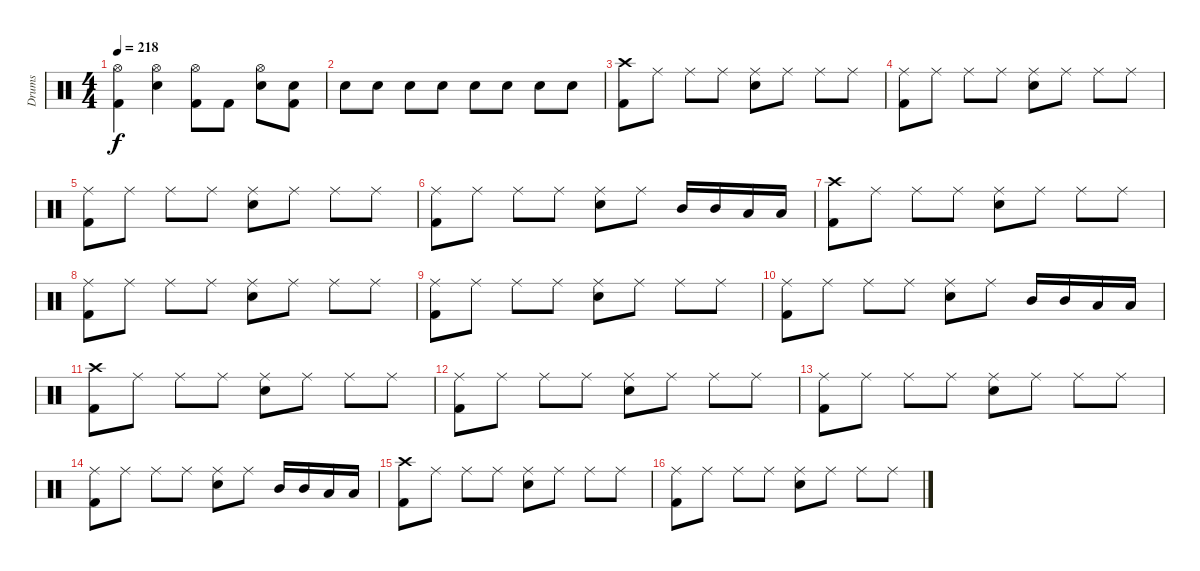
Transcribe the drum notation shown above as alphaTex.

\track ("Drums" "Drums") {instrument percussion}
\staff {score}
\articulation defaults
\ts (4 4)
\tempo 218
\clef neutral
\ks c
("Hi-Hat (open)" "Kick (hit) 2").4{dy f} ("Hi-Hat (open)" "Snare (hit) 2").4 ("Hi-Hat (open)" "Kick (hit) 2").8 "Kick (hit) 2".8 ("Hi-Hat (open)" "Snare (hit) 2").8 ("Snare (hit) 2" "Kick (hit) 2").8 |
"Snare (hit) 2".8 "Snare (hit) 2".8 "Snare (hit) 2".8 "Snare (hit) 2".8 "Snare (hit) 2".8 "Snare (hit) 2".8 "Snare (hit) 2".8 "Snare (hit) 2".8 |
("Crash high (hit)" "Kick (hit) 2").8 "Ride (middle)".8 "Ride (middle)".8 "Ride (middle)".8 ("Ride (middle)" "Snare (hit) 2").8 "Ride (middle)".8 "Ride (middle)".8 "Ride (middle)".8 |
("Ride (middle)" "Kick (hit) 2").8 "Ride (middle)".8 "Ride (middle)".8 "Ride (middle)".8 ("Ride (middle)" "Snare (hit) 2").8 "Ride (middle)".8 "Ride (middle)".8 "Ride (middle)".8 |
("Ride (middle)" "Kick (hit) 2").8 "Ride (middle)".8 "Ride (middle)".8 "Ride (middle)".8 ("Ride (middle)" "Snare (hit) 2").8 "Ride (middle)".8 "Ride (middle)".8 "Ride (middle)".8 |
("Ride (middle)" "Kick (hit) 2").8 "Ride (middle)".8 "Ride (middle)".8 "Ride (middle)".8 ("Ride (middle)" "Snare (hit) 2").8 "Ride (middle)".8 "Mid Tom (hit)".16 "Mid Tom (hit)".16 "Low Tom (hit)".16 "Low Tom (hit)".16 |
("Crash high (hit)" "Kick (hit) 2").8 "Ride (middle)".8 "Ride (middle)".8 "Ride (middle)".8 ("Ride (middle)" "Snare (hit) 2").8 "Ride (middle)".8 "Ride (middle)".8 "Ride (middle)".8 |
("Ride (middle)" "Kick (hit) 2").8 "Ride (middle)".8 "Ride (middle)".8 "Ride (middle)".8 ("Ride (middle)" "Snare (hit) 2").8 "Ride (middle)".8 "Ride (middle)".8 "Ride (middle)".8 |
("Ride (middle)" "Kick (hit) 2").8 "Ride (middle)".8 "Ride (middle)".8 "Ride (middle)".8 ("Ride (middle)" "Snare (hit) 2").8 "Ride (middle)".8 "Ride (middle)".8 "Ride (middle)".8 |
("Ride (middle)" "Kick (hit) 2").8 "Ride (middle)".8 "Ride (middle)".8 "Ride (middle)".8 ("Ride (middle)" "Snare (hit) 2").8 "Ride (middle)".8 "Mid Tom (hit)".16 "Mid Tom (hit)".16 "Low Tom (hit)".16 "Low Tom (hit)".16 |
("Crash high (hit)" "Kick (hit) 2").8 "Ride (middle)".8 "Ride (middle)".8 "Ride (middle)".8 ("Ride (middle)" "Snare (hit) 2").8 "Ride (middle)".8 "Ride (middle)".8 "Ride (middle)".8 |
("Ride (middle)" "Kick (hit) 2").8 "Ride (middle)".8 "Ride (middle)".8 "Ride (middle)".8 ("Ride (middle)" "Snare (hit) 2").8 "Ride (middle)".8 "Ride (middle)".8 "Ride (middle)".8 |
("Ride (middle)" "Kick (hit) 2").8 "Ride (middle)".8 "Ride (middle)".8 "Ride (middle)".8 ("Ride (middle)" "Snare (hit) 2").8 "Ride (middle)".8 "Ride (middle)".8 "Ride (middle)".8 |
("Ride (middle)" "Kick (hit) 2").8 "Ride (middle)".8 "Ride (middle)".8 "Ride (middle)".8 ("Ride (middle)" "Snare (hit) 2").8 "Ride (middle)".8 "Mid Tom (hit)".16 "Mid Tom (hit)".16 "Low Tom (hit)".16 "Low Tom (hit)".16 |
("Crash high (hit)" "Kick (hit) 2").8 "Ride (middle)".8 "Ride (middle)".8 "Ride (middle)".8 ("Ride (middle)" "Snare (hit) 2").8 "Ride (middle)".8 "Ride (middle)".8 "Ride (middle)".8 |
("Ride (middle)" "Kick (hit) 2").8 "Ride (middle)".8 "Ride (middle)".8 "Ride (middle)".8 ("Ride (middle)" "Snare (hit) 2").8 "Ride (middle)".8 "Ride (middle)".8 "Ride (middle)".8
